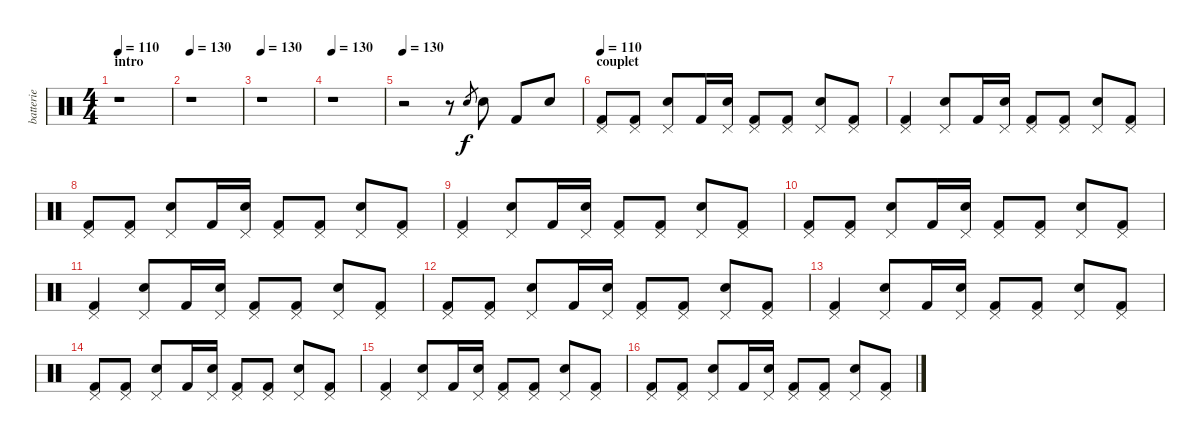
\track ("batterie" "batterie") {instrument percussion}
\staff {score}
\articulation defaults
\ts (4 4)
\section ("" "intro")
\tempo 110
\tempo 130
\tempo 110
\clef neutral
\ks c
r.1{dy f} |
\tempo 130
r.1 |
\tempo 130
r.1 |
\tempo 130
r.1 |
\tempo 130
r.2 r.8 "Snare (hit) 2".8{gr} "Snare (hit) 2".8 "Kick (hit) 2".8 "Snare (hit) 2".8 |
\section ("" "couplet")
\tempo 110
("Pedal Hi-Hat (hit)" "Kick (hit) 2").8 ("Pedal Hi-Hat (hit)" "Kick (hit) 2").8 ("Pedal Hi-Hat (hit)" "Snare (hit) 2").8 "Kick (hit) 2".16 ("Pedal Hi-Hat (hit)" "Snare (hit) 2").16 ("Pedal Hi-Hat (hit)" "Kick (hit) 2").8 ("Pedal Hi-Hat (hit)" "Kick (hit) 2").8 ("Pedal Hi-Hat (hit)" "Snare (hit) 2").8 ("Pedal Hi-Hat (hit)" "Kick (hit) 2").8 |
("Pedal Hi-Hat (hit)" "Kick (hit) 2").4 ("Pedal Hi-Hat (hit)" "Snare (hit) 2").8 "Kick (hit) 2".16 ("Pedal Hi-Hat (hit)" "Snare (hit) 2").16 ("Pedal Hi-Hat (hit)" "Kick (hit) 2").8 ("Pedal Hi-Hat (hit)" "Kick (hit) 2").8 ("Pedal Hi-Hat (hit)" "Snare (hit) 2").8 ("Pedal Hi-Hat (hit)" "Kick (hit) 2").8 |
("Pedal Hi-Hat (hit)" "Kick (hit) 2").8 ("Pedal Hi-Hat (hit)" "Kick (hit) 2").8 ("Pedal Hi-Hat (hit)" "Snare (hit) 2").8 "Kick (hit) 2".16 ("Pedal Hi-Hat (hit)" "Snare (hit) 2").16 ("Pedal Hi-Hat (hit)" "Kick (hit) 2").8 ("Pedal Hi-Hat (hit)" "Kick (hit) 2").8 ("Pedal Hi-Hat (hit)" "Snare (hit) 2").8 ("Pedal Hi-Hat (hit)" "Kick (hit) 2").8 |
("Pedal Hi-Hat (hit)" "Kick (hit) 2").4 ("Pedal Hi-Hat (hit)" "Snare (hit) 2").8 "Kick (hit) 2".16 ("Pedal Hi-Hat (hit)" "Snare (hit) 2").16 ("Pedal Hi-Hat (hit)" "Kick (hit) 2").8 ("Pedal Hi-Hat (hit)" "Kick (hit) 2").8 ("Pedal Hi-Hat (hit)" "Snare (hit) 2").8 ("Pedal Hi-Hat (hit)" "Kick (hit) 2").8 |
("Pedal Hi-Hat (hit)" "Kick (hit) 2").8 ("Pedal Hi-Hat (hit)" "Kick (hit) 2").8 ("Pedal Hi-Hat (hit)" "Snare (hit) 2").8 "Kick (hit) 2".16 ("Pedal Hi-Hat (hit)" "Snare (hit) 2").16 ("Pedal Hi-Hat (hit)" "Kick (hit) 2").8 ("Pedal Hi-Hat (hit)" "Kick (hit) 2").8 ("Pedal Hi-Hat (hit)" "Snare (hit) 2").8 ("Pedal Hi-Hat (hit)" "Kick (hit) 2").8 |
("Pedal Hi-Hat (hit)" "Kick (hit) 2").4 ("Pedal Hi-Hat (hit)" "Snare (hit) 2").8 "Kick (hit) 2".16 ("Pedal Hi-Hat (hit)" "Snare (hit) 2").16 ("Pedal Hi-Hat (hit)" "Kick (hit) 2").8 ("Pedal Hi-Hat (hit)" "Kick (hit) 2").8 ("Pedal Hi-Hat (hit)" "Snare (hit) 2").8 ("Pedal Hi-Hat (hit)" "Kick (hit) 2").8 |
("Pedal Hi-Hat (hit)" "Kick (hit) 2").8 ("Pedal Hi-Hat (hit)" "Kick (hit) 2").8 ("Pedal Hi-Hat (hit)" "Snare (hit) 2").8 "Kick (hit) 2".16 ("Pedal Hi-Hat (hit)" "Snare (hit) 2").16 ("Pedal Hi-Hat (hit)" "Kick (hit) 2").8 ("Pedal Hi-Hat (hit)" "Kick (hit) 2").8 ("Pedal Hi-Hat (hit)" "Snare (hit) 2").8 ("Pedal Hi-Hat (hit)" "Kick (hit) 2").8 |
("Pedal Hi-Hat (hit)" "Kick (hit) 2").4 ("Pedal Hi-Hat (hit)" "Snare (hit) 2").8 "Kick (hit) 2".16 ("Pedal Hi-Hat (hit)" "Snare (hit) 2").16 ("Pedal Hi-Hat (hit)" "Kick (hit) 2").8 ("Pedal Hi-Hat (hit)" "Kick (hit) 2").8 ("Pedal Hi-Hat (hit)" "Snare (hit) 2").8 ("Pedal Hi-Hat (hit)" "Kick (hit) 2").8 |
("Pedal Hi-Hat (hit)" "Kick (hit) 2").8 ("Pedal Hi-Hat (hit)" "Kick (hit) 2").8 ("Pedal Hi-Hat (hit)" "Snare (hit) 2").8 "Kick (hit) 2".16 ("Pedal Hi-Hat (hit)" "Snare (hit) 2").16 ("Pedal Hi-Hat (hit)" "Kick (hit) 2").8 ("Pedal Hi-Hat (hit)" "Kick (hit) 2").8 ("Pedal Hi-Hat (hit)" "Snare (hit) 2").8 ("Pedal Hi-Hat (hit)" "Kick (hit) 2").8 |
("Pedal Hi-Hat (hit)" "Kick (hit) 2").4 ("Pedal Hi-Hat (hit)" "Snare (hit) 2").8 "Kick (hit) 2".16 ("Pedal Hi-Hat (hit)" "Snare (hit) 2").16 ("Pedal Hi-Hat (hit)" "Kick (hit) 2").8 ("Pedal Hi-Hat (hit)" "Kick (hit) 2").8 ("Pedal Hi-Hat (hit)" "Snare (hit) 2").8 ("Pedal Hi-Hat (hit)" "Kick (hit) 2").8 |
("Pedal Hi-Hat (hit)" "Kick (hit) 2").8 ("Pedal Hi-Hat (hit)" "Kick (hit) 2").8 ("Pedal Hi-Hat (hit)" "Snare (hit) 2").8 "Kick (hit) 2".16 ("Pedal Hi-Hat (hit)" "Snare (hit) 2").16 ("Pedal Hi-Hat (hit)" "Kick (hit) 2").8 ("Pedal Hi-Hat (hit)" "Kick (hit) 2").8 ("Pedal Hi-Hat (hit)" "Snare (hit) 2").8 ("Pedal Hi-Hat (hit)" "Kick (hit) 2").8
